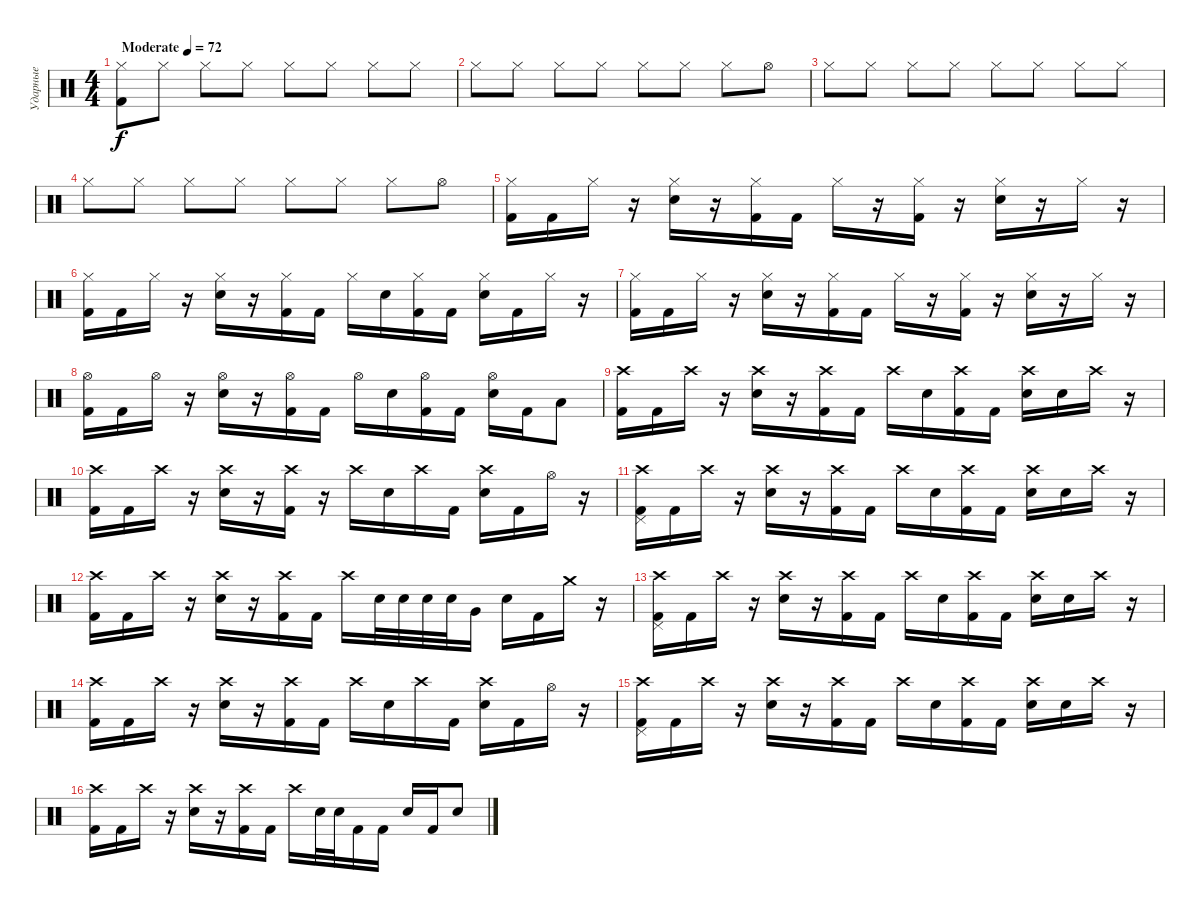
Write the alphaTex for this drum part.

\track ("Ударные" "Ударные") {instrument percussion}
\staff {score}
\articulation defaults
\ts (4 4)
\tempo (72 "Moderate")
\clef neutral
\ks c
("Hi-Hat (closed)" "Kick (hit) 2").8{dy f} "Hi-Hat (closed)".8 "Hi-Hat (closed)".8 "Hi-Hat (closed)".8 "Hi-Hat (closed)".8 "Hi-Hat (closed)".8 "Hi-Hat (closed)".8 "Hi-Hat (closed)".8 |
"Hi-Hat (closed)".8 "Hi-Hat (closed)".8 "Hi-Hat (closed)".8 "Hi-Hat (closed)".8 "Hi-Hat (closed)".8 "Hi-Hat (closed)".8 "Hi-Hat (closed)".8 "Hi-Hat (open)".8 |
"Hi-Hat (closed)".8 "Hi-Hat (closed)".8 "Hi-Hat (closed)".8 "Hi-Hat (closed)".8 "Hi-Hat (closed)".8 "Hi-Hat (closed)".8 "Hi-Hat (closed)".8 "Hi-Hat (closed)".8 |
"Hi-Hat (closed)".8 "Hi-Hat (closed)".8 "Hi-Hat (closed)".8 "Hi-Hat (closed)".8 "Hi-Hat (closed)".8 "Hi-Hat (closed)".8 "Hi-Hat (closed)".8 "Hi-Hat (open)".8 |
("Hi-Hat (closed)" "Kick (hit) 2").16 "Kick (hit) 2".16 "Hi-Hat (closed)".16 r.16 ("Hi-Hat (closed)" "Electric Snare (hit)").16 r.16 ("Hi-Hat (closed)" "Kick (hit) 2").16 "Kick (hit) 2".16 "Hi-Hat (closed)".16 r.16 ("Hi-Hat (closed)" "Kick (hit) 2").16 r.16 ("Hi-Hat (closed)" "Electric Snare (hit)").16 r.16 "Hi-Hat (closed)".16 r.16 |
("Hi-Hat (closed)" "Kick (hit) 2").16 "Kick (hit) 2".16 "Hi-Hat (closed)".16 r.16 ("Hi-Hat (closed)" "Electric Snare (hit)").16 r.16 ("Hi-Hat (closed)" "Kick (hit) 2").16 "Kick (hit) 2".16 "Hi-Hat (closed)".16 "Electric Snare (hit)".16 ("Hi-Hat (closed)" "Kick (hit) 2").16 "Kick (hit) 2".16 ("Hi-Hat (closed)" "Electric Snare (hit)").16 "Kick (hit) 2".16 "Hi-Hat (closed)".16 r.16 |
("Hi-Hat (closed)" "Kick (hit) 2").16 "Kick (hit) 2".16 "Hi-Hat (closed)".16 r.16 ("Hi-Hat (closed)" "Electric Snare (hit)").16 r.16 ("Hi-Hat (closed)" "Kick (hit) 2").16 "Kick (hit) 2".16 "Hi-Hat (closed)".16 r.16 ("Hi-Hat (closed)" "Kick (hit) 2").16 r.16 ("Hi-Hat (closed)" "Electric Snare (hit)").16 r.16 "Hi-Hat (closed)".16 r.16 |
("Hi-Hat (open)" "Kick (hit) 2").16 "Kick (hit) 2".16 "Hi-Hat (open)".16 r.16 ("Hi-Hat (open)" "Electric Snare (hit)").16 r.16 ("Hi-Hat (open)" "Kick (hit) 2").16 "Kick (hit) 2".16 "Hi-Hat (open)".16 "Electric Snare (hit)".16 ("Hi-Hat (open)" "Kick (hit) 2").16 "Kick (hit) 2".16 ("Hi-Hat (open)" "Electric Snare (hit)").16 "Kick (hit) 2".16 "Low Floor Tom (hit)".8 |
("Crash high (hit)" "Kick (hit) 2").16 "Kick (hit) 2".16 "Crash high (hit)".16 r.16 ("Crash high (hit)" "Electric Snare (hit)").16 r.16 ("Crash high (hit)" "Kick (hit) 2").16 "Kick (hit) 2".16 "Crash high (hit)".16 "Electric Snare (hit)".16 ("Crash high (hit)" "Kick (hit) 2").16 "Kick (hit) 2".16 ("Crash high (hit)" "Electric Snare (hit)").16 "Electric Snare (hit)".16 "Crash high (hit)".16 r.16 |
("Crash high (hit)" "Kick (hit) 2").16 "Kick (hit) 2".16 "Crash high (hit)".16 r.16 ("Crash high (hit)" "Electric Snare (hit)").16 r.16 ("Crash high (hit)" "Kick (hit) 2").16 r.16 "Crash high (hit)".16 "Electric Snare (hit)".16 "Crash high (hit)".16 "Kick (hit) 2".16 ("Crash high (hit)" "Electric Snare (hit)").16 "Kick (hit) 2".16 "Hi-Hat (open)".16 r.16 |
("Crash high (hit)" "Pedal Hi-Hat (hit)" "Kick (hit) 2").16 "Kick (hit) 2".16 "Crash high (hit)".16 r.16 ("Crash high (hit)" "Electric Snare (hit)").16 r.16 ("Crash high (hit)" "Kick (hit) 2").16 "Kick (hit) 2".16 "Crash high (hit)".16 "Electric Snare (hit)".16 ("Crash high (hit)" "Kick (hit) 2").16 "Kick (hit) 2".16 ("Crash high (hit)" "Electric Snare (hit)").16 "Electric Snare (hit)".16 "Crash high (hit)".16 r.16 |
("Crash high (hit)" "Kick (hit) 2").16 "Kick (hit) 2".16 "Crash high (hit)".16 r.16 ("Crash high (hit)" "Electric Snare (hit)").16 r.16 ("Crash high (hit)" "Kick (hit) 2").16 "Kick (hit) 2".16 "Crash high (hit)".16 "Electric Snare (hit)".32 "Electric Snare (hit)".32 "Electric Snare (hit)".32 "Electric Snare (hit)".32 "Very Low Tom (hit)".16 "Electric Snare (hit)".16 "Kick (hit) 2".16 "Crash medium (hit)".16 r.16 |
("Crash high (hit)" "Pedal Hi-Hat (hit)" "Kick (hit) 2").16 "Kick (hit) 2".16 "Crash high (hit)".16 r.16 ("Crash high (hit)" "Electric Snare (hit)").16 r.16 ("Crash high (hit)" "Kick (hit) 2").16 "Kick (hit) 2".16 "Crash high (hit)".16 "Electric Snare (hit)".16 ("Crash high (hit)" "Kick (hit) 2").16 "Kick (hit) 2".16 ("Crash high (hit)" "Electric Snare (hit)").16 "Electric Snare (hit)".16 "Crash high (hit)".16 r.16 |
("Crash high (hit)" "Kick (hit) 2").16 "Kick (hit) 2".16 "Crash high (hit)".16 r.16 ("Crash high (hit)" "Electric Snare (hit)").16 r.16 ("Crash high (hit)" "Kick (hit) 2").16 "Kick (hit) 2".16 "Crash high (hit)".16 "Electric Snare (hit)".16 "Crash high (hit)".16 "Kick (hit) 2".16 ("Crash high (hit)" "Electric Snare (hit)").16 "Kick (hit) 2".16 "Hi-Hat (open)".16 r.16 |
("Crash high (hit)" "Pedal Hi-Hat (hit)" "Kick (hit) 2").16 "Kick (hit) 2".16 "Crash high (hit)".16 r.16 ("Crash high (hit)" "Electric Snare (hit)").16 r.16 ("Crash high (hit)" "Kick (hit) 2").16 "Kick (hit) 2".16 "Crash high (hit)".16 "Electric Snare (hit)".16 ("Crash high (hit)" "Kick (hit) 2").16 "Kick (hit) 2".16 ("Crash high (hit)" "Electric Snare (hit)").16 "Electric Snare (hit)".16 "Crash high (hit)".16 r.16 |
("Crash high (hit)" "Kick (hit) 2").16 "Kick (hit) 2".16 "Crash high (hit)".16 r.16 ("Crash high (hit)" "Electric Snare (hit)").16 r.16 ("Crash high (hit)" "Kick (hit) 2").16 "Kick (hit) 2".16 "Crash high (hit)".16 "Electric Snare (hit)".32 "Electric Snare (hit)".32 "Kick (hit) 2".16 "Kick (hit) 2".16 "Electric Snare (hit)".16 "Kick (hit) 2".16 "Electric Snare (hit)".8
